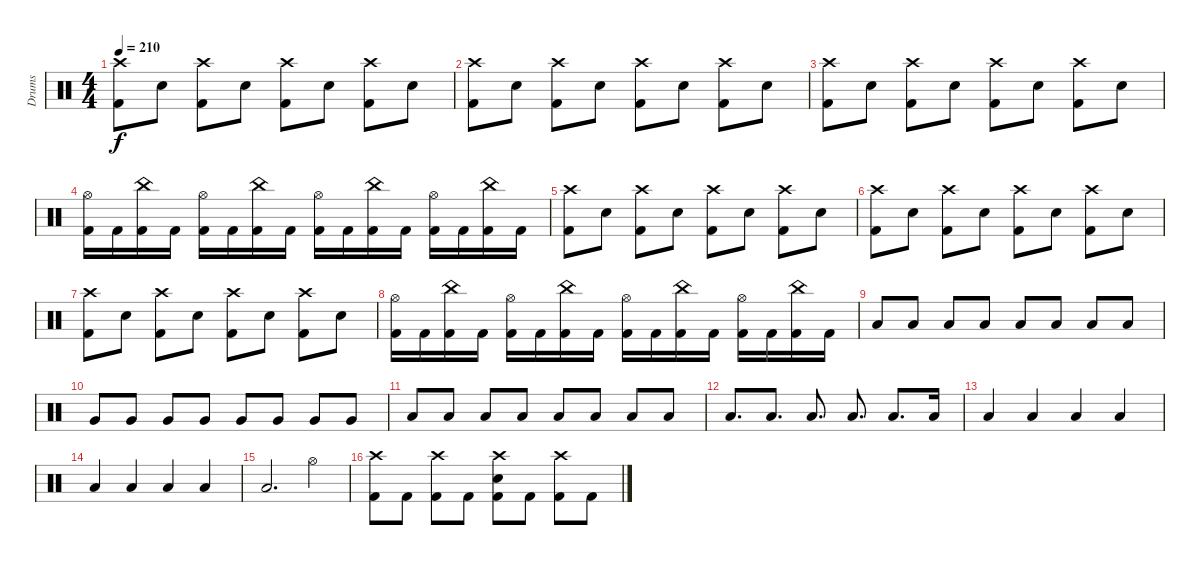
\track ("Drums" "Drums") {instrument percussion}
\staff {score}
\articulation defaults
\ts (4 4)
\tempo 210
\clef neutral
\ks c
("Crash high (hit)" "Kick (hit) 2").8{dy f} "Snare (hit) 2".8 ("Crash high (hit)" "Kick (hit) 2").8 "Snare (hit) 2".8 ("Crash high (hit)" "Kick (hit) 2").8 "Snare (hit) 2".8 ("Crash high (hit)" "Kick (hit) 2").8 "Snare (hit) 2".8 |
("Crash high (hit)" "Kick (hit) 2").8 "Snare (hit) 2".8 ("Crash high (hit)" "Kick (hit) 2").8 "Snare (hit) 2".8 ("Crash high (hit)" "Kick (hit) 2").8 "Snare (hit) 2".8 ("Crash high (hit)" "Kick (hit) 2").8 "Snare (hit) 2".8 |
("Crash high (hit)" "Kick (hit) 2").8 "Snare (hit) 2".8 ("Crash high (hit)" "Kick (hit) 2").8 "Snare (hit) 2".8 ("Crash high (hit)" "Kick (hit) 2").8 "Snare (hit) 2".8 ("Crash high (hit)" "Kick (hit) 2").8 "Snare (hit) 2".8 |
("Hi-Hat (open)" "Kick (hit) 2").16 "Kick (hit) 2".16 ("China (hit)" "Kick (hit) 2").16 "Kick (hit) 2".16 ("Hi-Hat (open)" "Kick (hit) 2").16 "Kick (hit) 2".16 ("China (hit)" "Kick (hit) 2").16 "Kick (hit) 2".16 ("Hi-Hat (open)" "Kick (hit) 2").16 "Kick (hit) 2".16 ("China (hit)" "Kick (hit) 2").16 "Kick (hit) 2".16 ("Hi-Hat (open)" "Kick (hit) 2").16 "Kick (hit) 2".16 ("China (hit)" "Kick (hit) 2").16 "Kick (hit) 2".16 |
("Crash high (hit)" "Kick (hit) 2").8 "Snare (hit) 2".8 ("Crash high (hit)" "Kick (hit) 2").8 "Snare (hit) 2".8 ("Crash high (hit)" "Kick (hit) 2").8 "Snare (hit) 2".8 ("Crash high (hit)" "Kick (hit) 2").8 "Snare (hit) 2".8 |
("Crash high (hit)" "Kick (hit) 2").8 "Snare (hit) 2".8 ("Crash high (hit)" "Kick (hit) 2").8 "Snare (hit) 2".8 ("Crash high (hit)" "Kick (hit) 2").8 "Snare (hit) 2".8 ("Crash high (hit)" "Kick (hit) 2").8 "Snare (hit) 2".8 |
("Crash high (hit)" "Kick (hit) 2").8 "Snare (hit) 2".8 ("Crash high (hit)" "Kick (hit) 2").8 "Snare (hit) 2".8 ("Crash high (hit)" "Kick (hit) 2").8 "Snare (hit) 2".8 ("Crash high (hit)" "Kick (hit) 2").8 "Snare (hit) 2".8 |
("Hi-Hat (open)" "Kick (hit) 2").16 "Kick (hit) 2".16 ("China (hit)" "Kick (hit) 2").16 "Kick (hit) 2".16 ("Hi-Hat (open)" "Kick (hit) 2").16 "Kick (hit) 2".16 ("China (hit)" "Kick (hit) 2").16 "Kick (hit) 2".16 ("Hi-Hat (open)" "Kick (hit) 2").16 "Kick (hit) 2".16 ("China (hit)" "Kick (hit) 2").16 "Kick (hit) 2".16 ("Hi-Hat (open)" "Kick (hit) 2").16 "Kick (hit) 2".16 ("China (hit)" "Kick (hit) 2").16 "Kick (hit) 2".16 |
"Low Tom (hit)".8 "Low Tom (hit)".8 "Low Tom (hit)".8 "Low Tom (hit)".8 "Low Tom (hit)".8 "Low Tom (hit)".8 "Low Tom (hit)".8 "Low Tom (hit)".8 |
"Very Low Tom (hit)".8 "Very Low Tom (hit)".8 "Very Low Tom (hit)".8 "Very Low Tom (hit)".8 "Very Low Tom (hit)".8 "Very Low Tom (hit)".8 "Very Low Tom (hit)".8 "Very Low Tom (hit)".8 |
"Low Floor Tom (hit)".8 "Low Floor Tom (hit)".8 "Low Floor Tom (hit)".8 "Low Floor Tom (hit)".8 "Low Floor Tom (hit)".8 "Low Floor Tom (hit)".8 "Low Floor Tom (hit)".8 "Low Floor Tom (hit)".8 |
"Low Floor Tom (hit)".8{d} "Low Floor Tom (hit)".8{d} "Low Floor Tom (hit)".8{d} "Low Floor Tom (hit)".8{d} "Low Floor Tom (hit)".8{d} "Low Floor Tom (hit)".16 |
"Low Floor Tom (hit)".4 "Low Floor Tom (hit)".4 "Low Floor Tom (hit)".4 "Low Floor Tom (hit)".4 |
"Low Floor Tom (hit)".4 "Low Floor Tom (hit)".4 "Low Floor Tom (hit)".4 "Low Floor Tom (hit)".4 |
"Low Floor Tom (hit)".2{d} "Hi-Hat (open)".4 |
("Crash high (hit)" "Kick (hit) 2").8 "Kick (hit) 2".8 ("Crash high (hit)" "Kick (hit) 2").8 "Kick (hit) 2".8 ("Crash high (hit)" "Snare (hit) 2" "Kick (hit) 2").8 "Kick (hit) 2".8 ("Crash high (hit)" "Kick (hit) 2").8 "Kick (hit) 2".8
